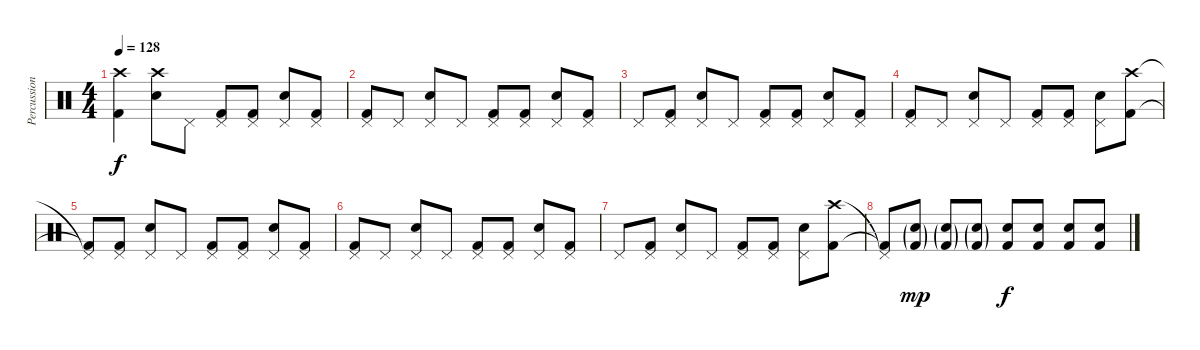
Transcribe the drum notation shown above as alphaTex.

\track ("Percussion" "Percussion") {instrument percussion}
\staff {score}
\articulation defaults
\ts (4 4)
\tempo 128
\clef neutral
\ks c
("Crash high (hit)" "Kick (hit) 2").4{dy f} ("Crash high (hit)" "Electric Snare (hit)").8 "Pedal Hi-Hat (hit)".8 ("Pedal Hi-Hat (hit)" "Kick (hit) 2").8 ("Pedal Hi-Hat (hit)" "Kick (hit) 2").8 ("Pedal Hi-Hat (hit)" "Electric Snare (hit)").8 ("Pedal Hi-Hat (hit)" "Kick (hit) 2").8 |
("Pedal Hi-Hat (hit)" "Kick (hit) 2").8 "Pedal Hi-Hat (hit)".8 ("Pedal Hi-Hat (hit)" "Electric Snare (hit)").8 "Pedal Hi-Hat (hit)".8 ("Pedal Hi-Hat (hit)" "Kick (hit) 2").8 ("Pedal Hi-Hat (hit)" "Kick (hit) 2").8 ("Pedal Hi-Hat (hit)" "Electric Snare (hit)").8 ("Pedal Hi-Hat (hit)" "Kick (hit) 2").8 |
"Pedal Hi-Hat (hit)".8 ("Pedal Hi-Hat (hit)" "Kick (hit) 2").8 ("Pedal Hi-Hat (hit)" "Electric Snare (hit)").8 "Pedal Hi-Hat (hit)".8 ("Pedal Hi-Hat (hit)" "Kick (hit) 2").8 ("Pedal Hi-Hat (hit)" "Kick (hit) 2").8 ("Pedal Hi-Hat (hit)" "Electric Snare (hit)").8 ("Pedal Hi-Hat (hit)" "Kick (hit) 2").8 |
("Pedal Hi-Hat (hit)" "Kick (hit) 2").8 "Pedal Hi-Hat (hit)".8 ("Pedal Hi-Hat (hit)" "Electric Snare (hit)").8 "Pedal Hi-Hat (hit)".8 ("Pedal Hi-Hat (hit)" "Kick (hit) 2").8 ("Pedal Hi-Hat (hit)" "Kick (hit) 2").8 ("Pedal Hi-Hat (hit)" "Electric Snare (hit)").8 ("Crash high (hit)" "Kick (hit) 2").8 |
("Pedal Hi-Hat (hit)"{t} "Kick (hit) 2"{t}).8 ("Pedal Hi-Hat (hit)" "Kick (hit) 2").8 ("Pedal Hi-Hat (hit)" "Electric Snare (hit)").8 "Pedal Hi-Hat (hit)".8 ("Pedal Hi-Hat (hit)" "Kick (hit) 2").8 ("Pedal Hi-Hat (hit)" "Kick (hit) 2").8 ("Pedal Hi-Hat (hit)" "Electric Snare (hit)").8 ("Pedal Hi-Hat (hit)" "Kick (hit) 2").8 |
("Pedal Hi-Hat (hit)" "Kick (hit) 2").8 "Pedal Hi-Hat (hit)".8 ("Pedal Hi-Hat (hit)" "Electric Snare (hit)").8 "Pedal Hi-Hat (hit)".8 ("Pedal Hi-Hat (hit)" "Kick (hit) 2").8 ("Pedal Hi-Hat (hit)" "Kick (hit) 2").8 ("Pedal Hi-Hat (hit)" "Electric Snare (hit)").8 ("Pedal Hi-Hat (hit)" "Kick (hit) 2").8 |
"Pedal Hi-Hat (hit)".8 ("Pedal Hi-Hat (hit)" "Kick (hit) 2").8 ("Pedal Hi-Hat (hit)" "Electric Snare (hit)").8 "Pedal Hi-Hat (hit)".8 ("Pedal Hi-Hat (hit)" "Kick (hit) 2").8 ("Pedal Hi-Hat (hit)" "Kick (hit) 2").8 ("Pedal Hi-Hat (hit)" "Electric Snare (hit)").8 ("Crash high (hit)" "Kick (hit) 2").8 |
("Pedal Hi-Hat (hit)"{t} "Kick (hit) 2"{t}).8 ("Electric Snare (hit)"{g} "Kick (hit) 2"{g}).8{dy mp} ("Electric Snare (hit)"{g} "Kick (hit) 2"{g}).8 ("Electric Snare (hit)"{g} "Kick (hit) 2"{g}).8 ("Electric Snare (hit)" "Kick (hit) 2").8{dy f} ("Electric Snare (hit)" "Kick (hit) 2").8 ("Electric Snare (hit)" "Kick (hit) 2").8 ("Electric Snare (hit)" "Kick (hit) 2").8
